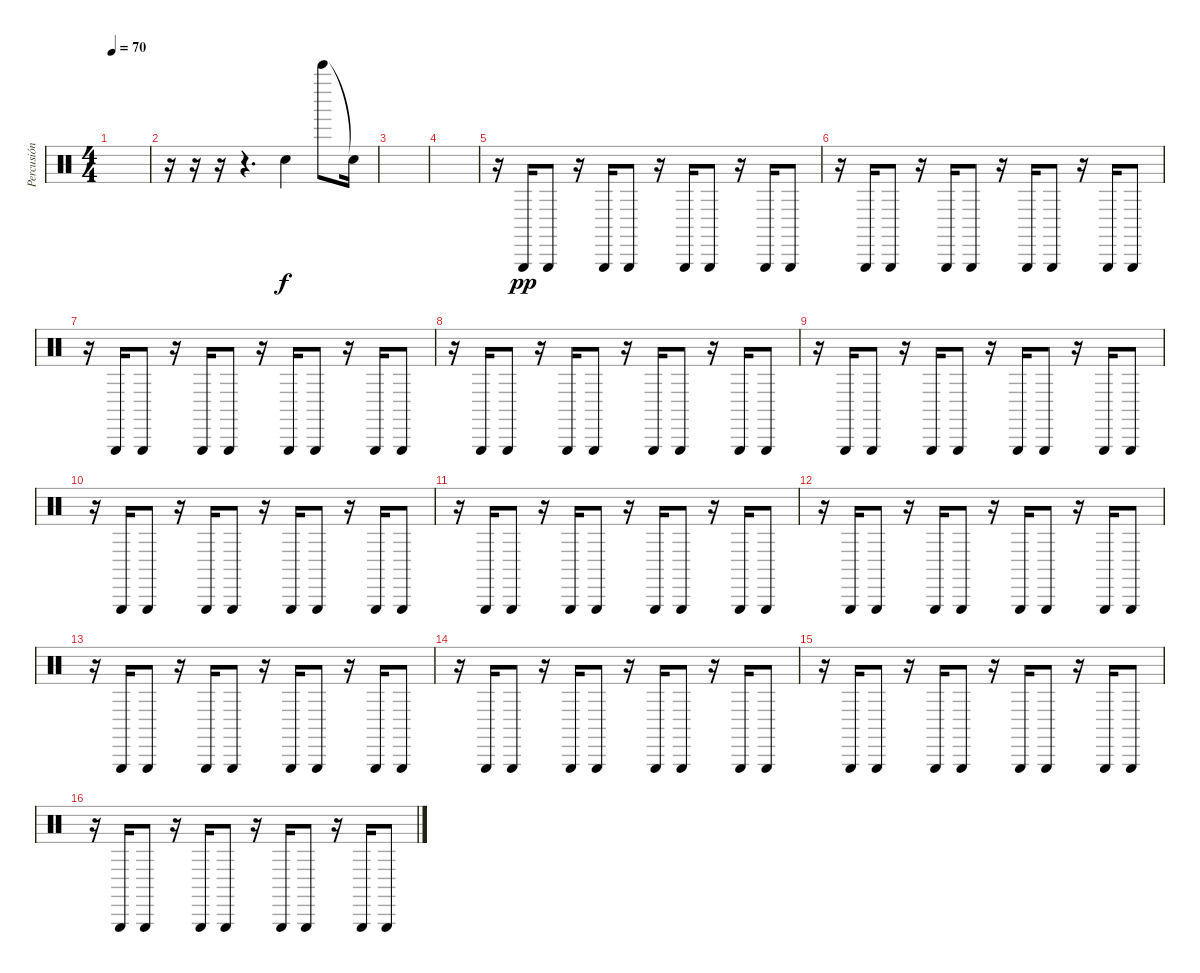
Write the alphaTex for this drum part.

\track ("Percusión" "Percusión") {instrument percussion}
\staff {score}
\articulation defaults
\ts (4 4)
\tempo 70
\clef neutral
\ks c
|
r.16 r.16 r.16 r.4{d} "Metronome (bell)".4 "Bell Tree (hit)".8{dy f} "Metronome (bell)"{t}.16 |
|
|
r.16 "Triangle (hit)".16{dy pp} "Triangle (hit)".8 r.16 "Triangle (hit)".16 "Triangle (hit)".8 r.16 "Triangle (hit)".16 "Triangle (hit)".8 r.16 "Triangle (hit)".16 "Triangle (hit)".8 |
r.16 "Triangle (hit)".16 "Triangle (hit)".8 r.16 "Triangle (hit)".16 "Triangle (hit)".8 r.16 "Triangle (hit)".16 "Triangle (hit)".8 r.16 "Triangle (hit)".16 "Triangle (hit)".8 |
r.16 "Triangle (hit)".16 "Triangle (hit)".8 r.16 "Triangle (hit)".16 "Triangle (hit)".8 r.16 "Triangle (hit)".16 "Triangle (hit)".8 r.16 "Triangle (hit)".16 "Triangle (hit)".8 |
r.16 "Triangle (hit)".16 "Triangle (hit)".8 r.16 "Triangle (hit)".16 "Triangle (hit)".8 r.16 "Triangle (hit)".16 "Triangle (hit)".8 r.16 "Triangle (hit)".16 "Triangle (hit)".8 |
r.16 "Triangle (hit)".16 "Triangle (hit)".8 r.16 "Triangle (hit)".16 "Triangle (hit)".8 r.16 "Triangle (hit)".16 "Triangle (hit)".8 r.16 "Triangle (hit)".16 "Triangle (hit)".8 |
r.16 "Triangle (hit)".16 "Triangle (hit)".8 r.16 "Triangle (hit)".16 "Triangle (hit)".8 r.16 "Triangle (hit)".16 "Triangle (hit)".8 r.16 "Triangle (hit)".16 "Triangle (hit)".8 |
r.16 "Triangle (hit)".16 "Triangle (hit)".8 r.16 "Triangle (hit)".16 "Triangle (hit)".8 r.16 "Triangle (hit)".16 "Triangle (hit)".8 r.16 "Triangle (hit)".16 "Triangle (hit)".8 |
r.16 "Triangle (hit)".16 "Triangle (hit)".8 r.16 "Triangle (hit)".16 "Triangle (hit)".8 r.16 "Triangle (hit)".16 "Triangle (hit)".8 r.16 "Triangle (hit)".16 "Triangle (hit)".8 |
r.16 "Triangle (hit)".16 "Triangle (hit)".8 r.16 "Triangle (hit)".16 "Triangle (hit)".8 r.16 "Triangle (hit)".16 "Triangle (hit)".8 r.16 "Triangle (hit)".16 "Triangle (hit)".8 |
r.16 "Triangle (hit)".16 "Triangle (hit)".8 r.16 "Triangle (hit)".16 "Triangle (hit)".8 r.16 "Triangle (hit)".16 "Triangle (hit)".8 r.16 "Triangle (hit)".16 "Triangle (hit)".8 |
r.16 "Triangle (hit)".16 "Triangle (hit)".8 r.16 "Triangle (hit)".16 "Triangle (hit)".8 r.16 "Triangle (hit)".16 "Triangle (hit)".8 r.16 "Triangle (hit)".16 "Triangle (hit)".8 |
r.16 "Triangle (hit)".16 "Triangle (hit)".8 r.16 "Triangle (hit)".16 "Triangle (hit)".8 r.16 "Triangle (hit)".16 "Triangle (hit)".8 r.16 "Triangle (hit)".16 "Triangle (hit)".8
